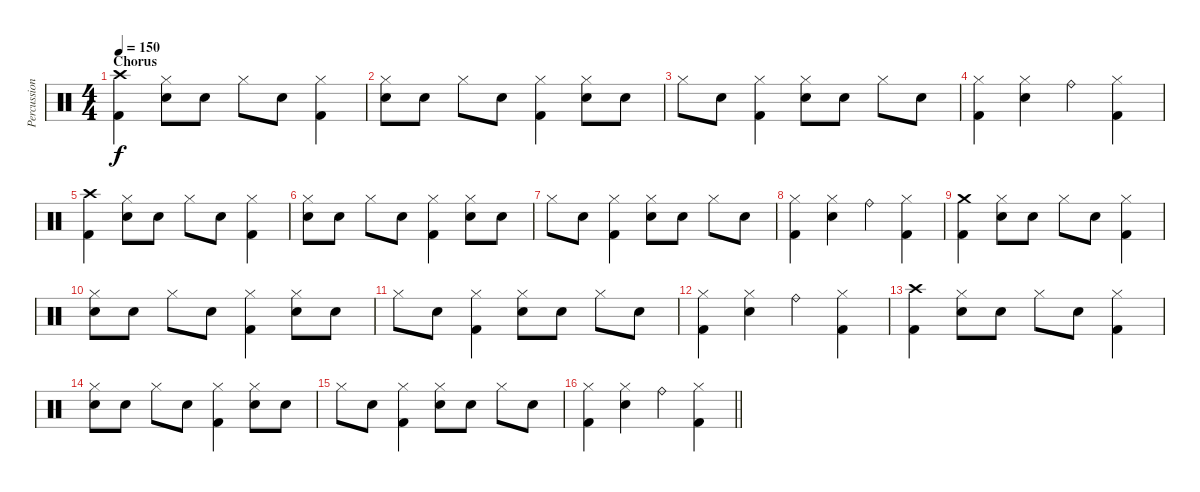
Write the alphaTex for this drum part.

\track ("Percussion" "Percussion") {instrument percussion}
\staff {score}
\articulation defaults
\ts (4 4)
\section ("" "Chorus")
\tempo 150
\clef neutral
\ks c
("Crash high (hit)" "Kick (hit) 2").4{dy f} ("Hi-Hat (closed)" "Electric Snare (hit)").8 "Electric Snare (hit)".8 "Hi-Hat (closed)".8 "Electric Snare (hit)".8 ("Hi-Hat (closed)" "Kick (hit) 2").4 |
("Hi-Hat (closed)" "Electric Snare (hit)").8 "Electric Snare (hit)".8 "Hi-Hat (closed)".8 "Electric Snare (hit)".8 ("Hi-Hat (closed)" "Kick (hit) 2").4 ("Hi-Hat (closed)" "Electric Snare (hit)").8 "Electric Snare (hit)".8 |
"Hi-Hat (closed)".8 "Electric Snare (hit)".8 ("Hi-Hat (closed)" "Kick (hit) 2").4 ("Hi-Hat (closed)" "Electric Snare (hit)").8 "Electric Snare (hit)".8 "Hi-Hat (closed)".8 "Electric Snare (hit)".8 |
("Hi-Hat (closed)" "Kick (hit) 2").4 ("Hi-Hat (closed)" "Electric Snare (hit)").4 "Ride (bell)".4 ("Hi-Hat (closed)" "Kick (hit) 2").4 |
("Crash high (hit)" "Kick (hit) 2").4 ("Hi-Hat (closed)" "Electric Snare (hit)").8 "Electric Snare (hit)".8 "Hi-Hat (closed)".8 "Electric Snare (hit)".8 ("Hi-Hat (closed)" "Kick (hit) 2").4 |
("Hi-Hat (closed)" "Electric Snare (hit)").8 "Electric Snare (hit)".8 "Hi-Hat (closed)".8 "Electric Snare (hit)".8 ("Hi-Hat (closed)" "Kick (hit) 2").4 ("Hi-Hat (closed)" "Electric Snare (hit)").8 "Electric Snare (hit)".8 |
"Hi-Hat (closed)".8 "Electric Snare (hit)".8 ("Hi-Hat (closed)" "Kick (hit) 2").4 ("Hi-Hat (closed)" "Electric Snare (hit)").8 "Electric Snare (hit)".8 "Hi-Hat (closed)".8 "Electric Snare (hit)".8 |
("Hi-Hat (closed)" "Kick (hit) 2").4 ("Hi-Hat (closed)" "Electric Snare (hit)").4 "Ride (bell)".4 ("Hi-Hat (closed)" "Kick (hit) 2").4 |
("Crash medium (hit)" "Kick (hit) 2").4 ("Hi-Hat (closed)" "Electric Snare (hit)").8 "Electric Snare (hit)".8 "Hi-Hat (closed)".8 "Electric Snare (hit)".8 ("Hi-Hat (closed)" "Kick (hit) 2").4 |
("Hi-Hat (closed)" "Electric Snare (hit)").8 "Electric Snare (hit)".8 "Hi-Hat (closed)".8 "Electric Snare (hit)".8 ("Hi-Hat (closed)" "Kick (hit) 2").4 ("Hi-Hat (closed)" "Electric Snare (hit)").8 "Electric Snare (hit)".8 |
"Hi-Hat (closed)".8 "Electric Snare (hit)".8 ("Hi-Hat (closed)" "Kick (hit) 2").4 ("Hi-Hat (closed)" "Electric Snare (hit)").8 "Electric Snare (hit)".8 "Hi-Hat (closed)".8 "Electric Snare (hit)".8 |
("Hi-Hat (closed)" "Kick (hit) 2").4 ("Hi-Hat (closed)" "Electric Snare (hit)").4 "Ride (bell)".4 ("Hi-Hat (closed)" "Kick (hit) 2").4 |
("Crash high (hit)" "Kick (hit) 2").4 ("Hi-Hat (closed)" "Electric Snare (hit)").8 "Electric Snare (hit)".8 "Hi-Hat (closed)".8 "Electric Snare (hit)".8 ("Hi-Hat (closed)" "Kick (hit) 2").4 |
("Hi-Hat (closed)" "Electric Snare (hit)").8 "Electric Snare (hit)".8 "Hi-Hat (closed)".8 "Electric Snare (hit)".8 ("Hi-Hat (closed)" "Kick (hit) 2").4 ("Hi-Hat (closed)" "Electric Snare (hit)").8 "Electric Snare (hit)".8 |
"Hi-Hat (closed)".8 "Electric Snare (hit)".8 ("Hi-Hat (closed)" "Kick (hit) 2").4 ("Hi-Hat (closed)" "Electric Snare (hit)").8 "Electric Snare (hit)".8 "Hi-Hat (closed)".8 "Electric Snare (hit)".8 |
\barLineRight lightlight
("Hi-Hat (closed)" "Kick (hit) 2").4 ("Hi-Hat (closed)" "Electric Snare (hit)").4 "Ride (bell)".4 ("Hi-Hat (closed)" "Kick (hit) 2").4
